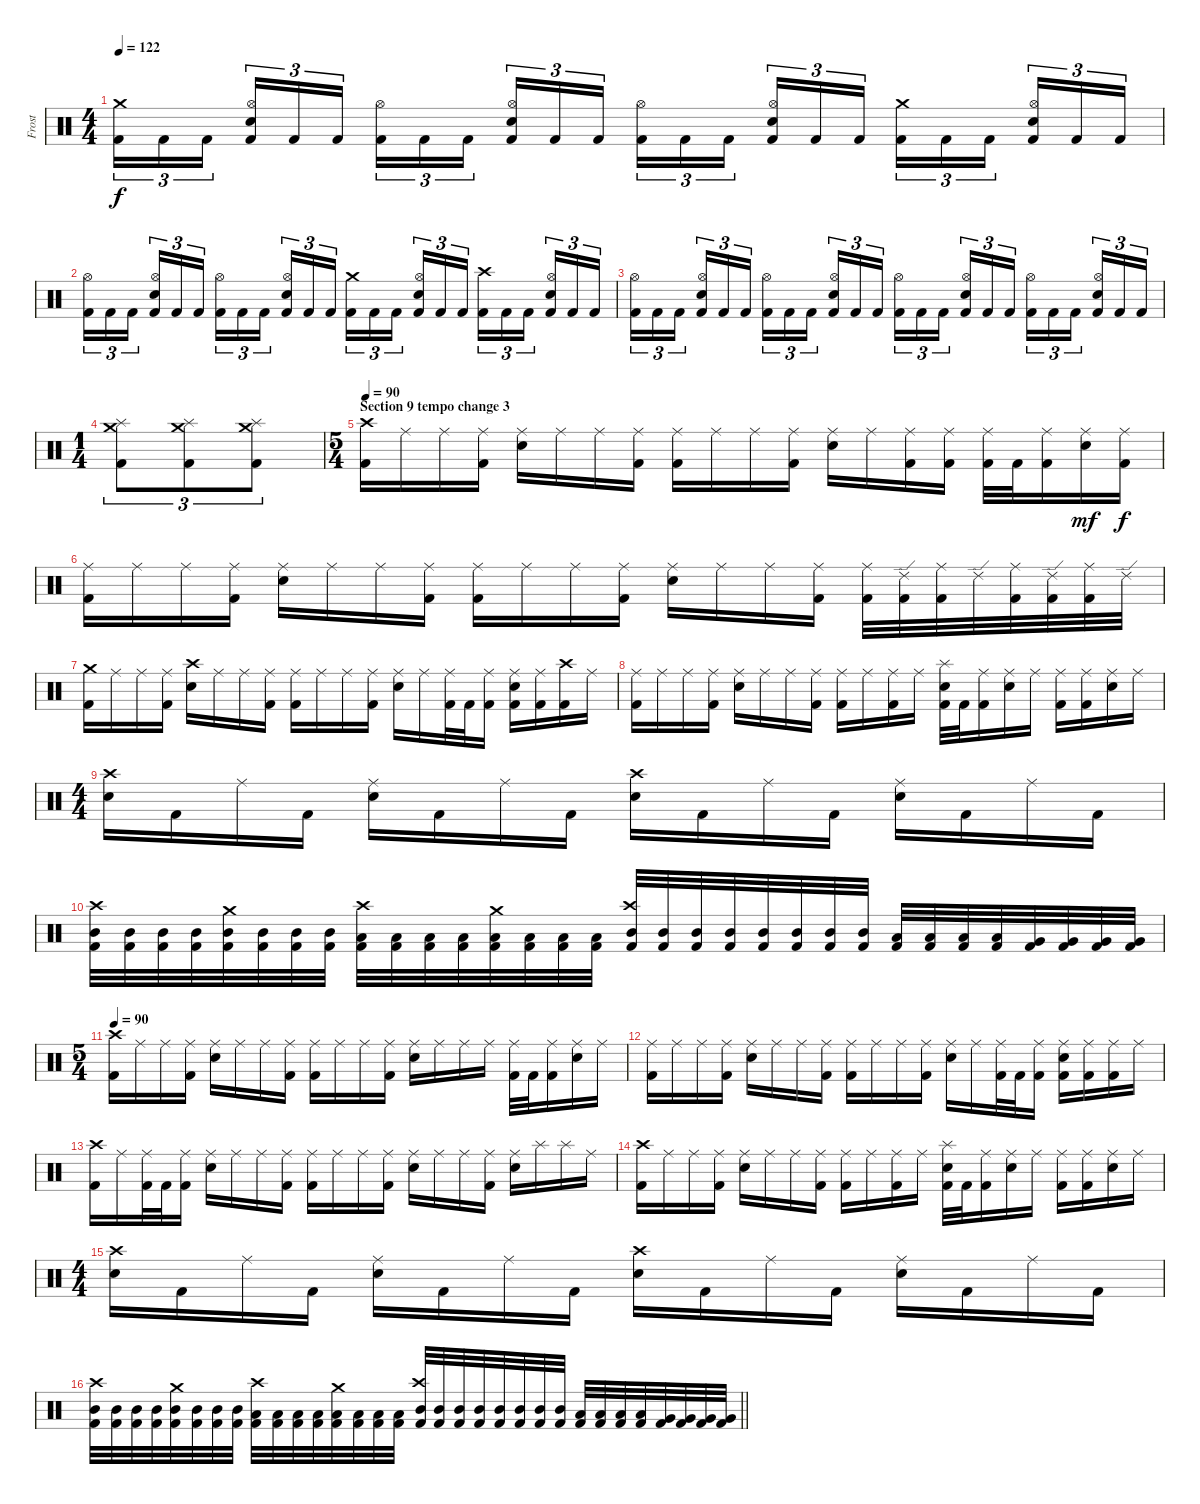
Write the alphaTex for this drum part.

\track ("Frost" "Frost") {instrument percussion}
\staff {score}
\articulation defaults
\ts (4 4)
\tempo 122
\clef neutral
\ks c
("Crash medium (hit)" "Kick (hit) 2").16{tu (3 2) dy f} "Kick (hit) 2".16{tu (3 2)} "Kick (hit) 2".16{tu (3 2)} ("Hi-Hat (open)" "Electric Snare (hit)" "Kick (hit) 2").16{tu (3 2)} "Kick (hit) 2".16{tu (3 2)} "Kick (hit) 2".16{tu (3 2)} ("Hi-Hat (open)" "Kick (hit) 2").16{tu (3 2)} "Kick (hit) 2".16{tu (3 2)} "Kick (hit) 2".16{tu (3 2)} ("Hi-Hat (open)" "Electric Snare (hit)" "Kick (hit) 2").16{tu (3 2)} "Kick (hit) 2".16{tu (3 2)} "Kick (hit) 2".16{tu (3 2)} ("Hi-Hat (open)" "Kick (hit) 2").16{tu (3 2)} "Kick (hit) 2".16{tu (3 2)} "Kick (hit) 2".16{tu (3 2)} ("Hi-Hat (open)" "Electric Snare (hit)" "Kick (hit) 2").16{tu (3 2)} "Kick (hit) 2".16{tu (3 2)} "Kick (hit) 2".16{tu (3 2)} ("Crash medium (hit)" "Kick (hit) 2").16{tu (3 2)} "Kick (hit) 2".16{tu (3 2)} "Kick (hit) 2".16{tu (3 2)} ("Hi-Hat (open)" "Electric Snare (hit)" "Kick (hit) 2").16{tu (3 2)} "Kick (hit) 2".16{tu (3 2)} "Kick (hit) 2".16{tu (3 2)} |
("Hi-Hat (open)" "Kick (hit) 2").16{tu (3 2)} "Kick (hit) 2".16{tu (3 2)} "Kick (hit) 2".16{tu (3 2)} ("Hi-Hat (open)" "Electric Snare (hit)" "Kick (hit) 2").16{tu (3 2)} "Kick (hit) 2".16{tu (3 2)} "Kick (hit) 2".16{tu (3 2)} ("Hi-Hat (open)" "Kick (hit) 2").16{tu (3 2)} "Kick (hit) 2".16{tu (3 2)} "Kick (hit) 2".16{tu (3 2)} ("Hi-Hat (open)" "Electric Snare (hit)" "Kick (hit) 2").16{tu (3 2)} "Kick (hit) 2".16{tu (3 2)} "Kick (hit) 2".16{tu (3 2)} ("Crash medium (hit)" "Kick (hit) 2").16{tu (3 2)} "Kick (hit) 2".16{tu (3 2)} "Kick (hit) 2".16{tu (3 2)} ("Hi-Hat (open)" "Electric Snare (hit)" "Kick (hit) 2").16{tu (3 2)} "Kick (hit) 2".16{tu (3 2)} "Kick (hit) 2".16{tu (3 2)} ("Crash high (hit)" "Kick (hit) 2").16{tu (3 2)} "Kick (hit) 2".16{tu (3 2)} "Kick (hit) 2".16{tu (3 2)} ("Hi-Hat (open)" "Electric Snare (hit)" "Kick (hit) 2").16{tu (3 2)} "Kick (hit) 2".16{tu (3 2)} "Kick (hit) 2".16{tu (3 2)} |
("Hi-Hat (open)" "Kick (hit) 2").16{tu (3 2)} "Kick (hit) 2".16{tu (3 2)} "Kick (hit) 2".16{tu (3 2)} ("Hi-Hat (open)" "Electric Snare (hit)" "Kick (hit) 2").16{tu (3 2)} "Kick (hit) 2".16{tu (3 2)} "Kick (hit) 2".16{tu (3 2)} ("Hi-Hat (open)" "Kick (hit) 2").16{tu (3 2)} "Kick (hit) 2".16{tu (3 2)} "Kick (hit) 2".16{tu (3 2)} ("Hi-Hat (open)" "Electric Snare (hit)" "Kick (hit) 2").16{tu (3 2)} "Kick (hit) 2".16{tu (3 2)} "Kick (hit) 2".16{tu (3 2)} ("Hi-Hat (open)" "Kick (hit) 2").16{tu (3 2)} "Kick (hit) 2".16{tu (3 2)} "Kick (hit) 2".16{tu (3 2)} ("Hi-Hat (open)" "Electric Snare (hit)" "Kick (hit) 2").16{tu (3 2)} "Kick (hit) 2".16{tu (3 2)} "Kick (hit) 2".16{tu (3 2)} ("Hi-Hat (open)" "Kick (hit) 2").16{tu (3 2)} "Kick (hit) 2".16{tu (3 2)} "Kick (hit) 2".16{tu (3 2)} ("Hi-Hat (open)" "Electric Snare (hit)" "Kick (hit) 2").16{tu (3 2)} "Kick (hit) 2".16{tu (3 2)} "Kick (hit) 2".16{tu (3 2)} |
\ts (1 4)
("Crash medium (hit)" "Splash (hit)" "Kick (hit) 2").8{tu (3 2)} ("Crash medium (hit)" "Splash (hit)" "Kick (hit) 2").8{tu (3 2)} ("Crash medium (hit)" "Splash (hit)" "Kick (hit) 2").8{tu (3 2)} |
\ts (5 4)
\section ("" "Section 9 tempo change 3")
\tempo 90
("Crash high (hit)" "Kick (hit) 2").16 "Ride (middle)".16 "Ride (middle)".16 ("Ride (middle)" "Kick (hit) 2").16 ("Ride (middle)" "Electric Snare (hit)").16 "Ride (middle)".16 "Ride (middle)".16 ("Ride (middle)" "Kick (hit) 2").16 ("Ride (middle)" "Kick (hit) 2").16 "Ride (middle)".16 "Ride (middle)".16 ("Ride (middle)" "Kick (hit) 2").16 ("Ride (middle)" "Electric Snare (hit)").16 "Ride (middle)".16 ("Ride (middle)" "Kick (hit) 2").16 ("Ride (middle)" "Kick (hit) 2").16 ("Ride (middle)" "Kick (hit) 2").32 "Kick (hit) 2".32 ("Ride (middle)" "Kick (hit) 2").16 ("Ride (middle)" "Electric Snare (hit)").16{dy mf} ("Ride (middle)" "Kick (hit) 2").16{dy f} |
("Ride (middle)" "Kick (hit) 2").16 "Ride (middle)".16 "Ride (middle)".16 ("Ride (middle)" "Kick (hit) 2").16 ("Ride (middle)" "Electric Snare (hit)").16 "Ride (middle)".16 "Ride (middle)".16 ("Ride (middle)" "Kick (hit) 2").16 ("Ride (middle)" "Kick (hit) 2").16 "Ride (middle)".16 "Ride (middle)".16 ("Ride (middle)" "Kick (hit) 2").16 ("Ride (middle)" "Electric Snare (hit)").16 "Ride (middle)".16 "Ride (middle)".16 ("Ride (middle)" "Kick (hit) 2").16 ("Ride (middle)" "Kick (hit) 2").32 ("Ride (edge) 2" "Kick (hit) 2").32 ("Ride (middle)" "Kick (hit) 2").32 "Ride (edge) 2".32 ("Ride (middle)" "Kick (hit) 2").32 ("Ride (edge) 2" "Kick (hit) 2").32 ("Ride (middle)" "Kick (hit) 2").32 "Ride (edge) 2".32 |
("Crash medium (hit)" "Kick (hit) 2").16 "Ride (middle)".16 "Ride (middle)".16 ("Ride (middle)" "Kick (hit) 2").16 ("Crash high (hit)" "Electric Snare (hit)").16 "Ride (middle)".16 "Ride (middle)".16 ("Ride (middle)" "Kick (hit) 2").16 ("Ride (middle)" "Kick (hit) 2").16 "Ride (middle)".16 "Ride (middle)".16 ("Ride (middle)" "Kick (hit) 2").16 ("Ride (middle)" "Electric Snare (hit)").16 "Ride (middle)".16 ("Ride (middle)" "Kick (hit) 2").32 "Kick (hit) 2".32 ("Ride (middle)" "Kick (hit) 2").16 ("Ride (middle)" "Electric Snare (hit)" "Kick (hit) 2").16 ("Ride (middle)" "Kick (hit) 2").16 ("Crash high (hit)" "Kick (hit) 2").16 "Ride (middle)".16 |
("Ride (middle)" "Kick (hit) 2").16 "Ride (middle)".16 "Ride (middle)".16 ("Ride (middle)" "Kick (hit) 2").16 ("Ride (middle)" "Electric Snare (hit)").16 "Ride (middle)".16 "Ride (middle)".16 ("Ride (middle)" "Kick (hit) 2").16 ("Ride (middle)" "Kick (hit) 2").16 "Ride (middle)".16 ("Ride (middle)" "Kick (hit) 2").16 "Ride (middle)".16 ("Splash (hit)" "Electric Snare (hit)" "Kick (hit) 2").32 "Kick (hit) 2".32 ("Ride (middle)" "Kick (hit) 2").16 ("Ride (middle)" "Electric Snare (hit)").16 "Ride (middle)".16 ("Ride (middle)" "Kick (hit) 2").16 ("Ride (middle)" "Kick (hit) 2").16 ("Ride (middle)" "Electric Snare (hit)").16 "Ride (middle)".16 |
\ts (4 4)
("Crash high (hit)" "Electric Snare (hit)").16 "Kick (hit) 2".16 "Ride (middle)".16 "Kick (hit) 2".16 ("Ride (middle)" "Electric Snare (hit)").16 "Kick (hit) 2".16 "Ride (middle)".16 "Kick (hit) 2".16 ("Crash high (hit)" "Electric Snare (hit)").16 "Kick (hit) 2".16 "Ride (middle)".16 "Kick (hit) 2".16 ("Ride (middle)" "Electric Snare (hit)").16 "Kick (hit) 2".16 "Ride (middle)".16 "Kick (hit) 2".16 |
("Mid Tom (hit)" "Crash high (hit)" "Kick (hit) 2").32 ("Mid Tom (hit)" "Kick (hit) 2").32 ("Mid Tom (hit)" "Kick (hit) 2").32 ("Mid Tom (hit)" "Kick (hit) 2").32 ("Mid Tom (hit)" "Crash medium (hit)" "Kick (hit) 2").32 ("Mid Tom (hit)" "Kick (hit) 2").32 ("Mid Tom (hit)" "Kick (hit) 2").32 ("Mid Tom (hit)" "Kick (hit) 2").32 ("Low Tom (hit)" "Crash high (hit)" "Kick (hit) 2").32 ("Low Tom (hit)" "Kick (hit) 2").32 ("Low Tom (hit)" "Kick (hit) 2").32 ("Low Tom (hit)" "Kick (hit) 2").32 ("Low Tom (hit)" "Crash medium (hit)" "Kick (hit) 2").32 ("Low Tom (hit)" "Kick (hit) 2").32 ("Low Tom (hit)" "Kick (hit) 2").32 ("Low Tom (hit)" "Kick (hit) 2").32 ("Mid Tom (hit)" "Crash high (hit)" "Kick (hit) 2").32 ("Mid Tom (hit)" "Kick (hit) 2").32 ("Mid Tom (hit)" "Kick (hit) 2").32 ("Mid Tom (hit)" "Kick (hit) 2").32 ("Mid Tom (hit)" "Kick (hit) 2").32 ("Mid Tom (hit)" "Kick (hit) 2").32 ("Mid Tom (hit)" "Kick (hit) 2").32 ("Mid Tom (hit)" "Kick (hit) 2").32 ("Low Tom (hit)" "Kick (hit) 2").32 ("Low Tom (hit)" "Kick (hit) 2").32 ("Low Tom (hit)" "Kick (hit) 2").32 ("Low Tom (hit)" "Kick (hit) 2").32 ("Very Low Tom (hit)" "Kick (hit) 2").32 ("Very Low Tom (hit)" "Kick (hit) 2").32 ("Very Low Tom (hit)" "Kick (hit) 2").32 ("Very Low Tom (hit)" "Kick (hit) 2").32 |
\ts (5 4)
\tempo 90
("Crash high (hit)" "Kick (hit) 2").16 "Ride (middle)".16 "Ride (middle)".16 ("Ride (middle)" "Kick (hit) 2").16 ("Ride (middle)" "Electric Snare (hit)").16 "Ride (middle)".16 "Ride (middle)".16 ("Ride (middle)" "Kick (hit) 2").16 ("Ride (middle)" "Kick (hit) 2").16 "Ride (middle)".16 "Ride (middle)".16 ("Ride (middle)" "Kick (hit) 2").16 ("Ride (middle)" "Electric Snare (hit)").16 "Ride (middle)".16 "Ride (middle)".16 "Ride (middle)".16 ("Ride (middle)" "Kick (hit) 2").32 "Kick (hit) 2".32 ("Ride (middle)" "Kick (hit) 2").16 ("Ride (middle)" "Electric Snare (hit)").16 "Ride (middle)".16 |
("Ride (middle)" "Kick (hit) 2").16 "Ride (middle)".16 "Ride (middle)".16 ("Ride (middle)" "Kick (hit) 2").16 ("Ride (middle)" "Electric Snare (hit)").16 "Ride (middle)".16 "Ride (middle)".16 ("Ride (middle)" "Kick (hit) 2").16 ("Ride (middle)" "Kick (hit) 2").16 "Ride (middle)".16 "Ride (middle)".16 ("Ride (middle)" "Kick (hit) 2").16 ("Ride (middle)" "Electric Snare (hit)").16 "Ride (middle)".16 ("Ride (middle)" "Kick (hit) 2").32 "Kick (hit) 2".32 ("Ride (middle)" "Kick (hit) 2").16 ("Ride (middle)" "Electric Snare (hit)" "Kick (hit) 2").16 ("Ride (middle)" "Kick (hit) 2").16 ("Ride (middle)" "Kick (hit) 2").16 "Ride (middle)".16 |
("Crash high (hit)" "Kick (hit) 2").16 "Ride (middle)".16 ("Ride (middle)" "Kick (hit) 2").32 "Kick (hit) 2".32 ("Ride (middle)" "Kick (hit) 2").16 ("Ride (middle)" "Electric Snare (hit)").16 "Ride (middle)".16 "Ride (middle)".16 ("Ride (middle)" "Kick (hit) 2").16 ("Ride (middle)" "Kick (hit) 2").16 "Ride (middle)".16 "Ride (middle)".16 ("Ride (middle)" "Kick (hit) 2").16 ("Ride (middle)" "Electric Snare (hit)").16 "Ride (middle)".16 "Ride (middle)".16 ("Ride (middle)" "Kick (hit) 2").16 ("Ride (middle)" "Electric Snare (hit)").16 "Splash (hit)".16 "Splash (hit)".16 "Ride (middle)".16 |
("Crash high (hit)" "Kick (hit) 2").16 "Ride (middle)".16 "Ride (middle)".16 ("Ride (middle)" "Kick (hit) 2").16 ("Ride (middle)" "Electric Snare (hit)").16 "Ride (middle)".16 "Ride (middle)".16 ("Ride (middle)" "Kick (hit) 2").16 ("Ride (middle)" "Kick (hit) 2").16 "Ride (middle)".16 ("Ride (middle)" "Kick (hit) 2").16 "Ride (middle)".16 ("Splash (hit)" "Electric Snare (hit)" "Kick (hit) 2").32 "Kick (hit) 2".32 ("Ride (middle)" "Kick (hit) 2").16 ("Ride (middle)" "Electric Snare (hit)").16 "Ride (middle)".16 ("Ride (middle)" "Kick (hit) 2").16 ("Ride (middle)" "Kick (hit) 2").16 ("Ride (middle)" "Electric Snare (hit)").16 "Ride (middle)".16 |
\ts (4 4)
("Crash high (hit)" "Electric Snare (hit)").16 "Kick (hit) 2".16 "Ride (middle)".16 "Kick (hit) 2".16 ("Ride (middle)" "Electric Snare (hit)").16 "Kick (hit) 2".16 "Ride (middle)".16 "Kick (hit) 2".16 ("Crash high (hit)" "Electric Snare (hit)").16 "Kick (hit) 2".16 "Ride (middle)".16 "Kick (hit) 2".16 ("Ride (middle)" "Electric Snare (hit)").16 "Kick (hit) 2".16 "Ride (middle)".16 "Kick (hit) 2".16 |
\barLineRight lightlight
("Mid Tom (hit)" "Crash high (hit)" "Kick (hit) 2").32 ("Mid Tom (hit)" "Kick (hit) 2").32 ("Mid Tom (hit)" "Kick (hit) 2").32 ("Mid Tom (hit)" "Kick (hit) 2").32 ("Mid Tom (hit)" "Crash medium (hit)" "Kick (hit) 2").32 ("Mid Tom (hit)" "Kick (hit) 2").32 ("Mid Tom (hit)" "Kick (hit) 2").32 ("Mid Tom (hit)" "Kick (hit) 2").32 ("Low Tom (hit)" "Crash high (hit)" "Kick (hit) 2").32 ("Low Tom (hit)" "Kick (hit) 2").32 ("Low Tom (hit)" "Kick (hit) 2").32 ("Low Tom (hit)" "Kick (hit) 2").32 ("Low Tom (hit)" "Crash medium (hit)" "Kick (hit) 2").32 ("Low Tom (hit)" "Kick (hit) 2").32 ("Low Tom (hit)" "Kick (hit) 2").32 ("Low Tom (hit)" "Kick (hit) 2").32 ("Mid Tom (hit)" "Crash high (hit)" "Kick (hit) 2").32 ("Mid Tom (hit)" "Kick (hit) 2").32 ("Mid Tom (hit)" "Kick (hit) 2").32 ("Mid Tom (hit)" "Kick (hit) 2").32 ("Mid Tom (hit)" "Kick (hit) 2").32 ("Mid Tom (hit)" "Kick (hit) 2").32 ("Mid Tom (hit)" "Kick (hit) 2").32 ("Mid Tom (hit)" "Kick (hit) 2").32 ("Low Tom (hit)" "Kick (hit) 2").32 ("Low Tom (hit)" "Kick (hit) 2").32 ("Low Tom (hit)" "Kick (hit) 2").32 ("Low Tom (hit)" "Kick (hit) 2").32 ("Very Low Tom (hit)" "Kick (hit) 2").32 ("Very Low Tom (hit)" "Kick (hit) 2").32 ("Very Low Tom (hit)" "Kick (hit) 2").32 ("Very Low Tom (hit)" "Kick (hit) 2").32
